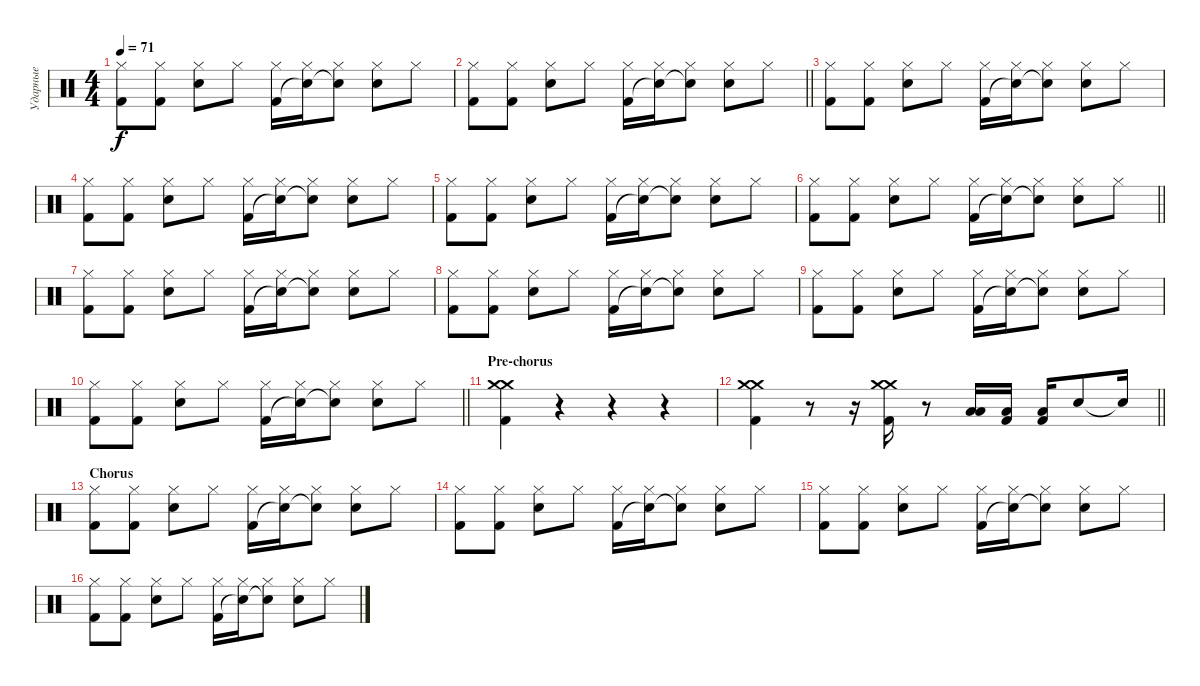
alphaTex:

\track ("Ударные" "Ударные") {instrument percussion}
\staff {score}
\articulation defaults
\ts (4 4)
\tempo 71
\clef neutral
\ks c
("Kick (hit) 2" "Hi-Hat (closed)").8{dy f} ("Kick (hit) 2" "Hi-Hat (closed)").8 ("Electric Snare (hit)" "Hi-Hat (closed)").8 "Hi-Hat (closed)".8 ("Kick (hit) 2" "Hi-Hat (closed)").16 ("Snare (hit)"{t} "Hi-Hat (closed)").16 ("Snare (hit)"{t} "Hi-Hat (closed)").8 ("Electric Snare (hit)" "Hi-Hat (closed)").8 "Hi-Hat (closed)".8 |
\barLineRight lightlight
("Kick (hit) 2" "Hi-Hat (closed)").8 ("Kick (hit) 2" "Hi-Hat (closed)").8 ("Electric Snare (hit)" "Hi-Hat (closed)").8 "Hi-Hat (closed)".8 ("Kick (hit) 2" "Hi-Hat (closed)").16 ("Snare (hit)"{t} "Hi-Hat (closed)").16 ("Snare (hit)"{t} "Hi-Hat (closed)").8 ("Electric Snare (hit)" "Hi-Hat (closed)").8 "Hi-Hat (closed)".8 |
("Kick (hit) 2" "Hi-Hat (closed)").8 ("Kick (hit) 2" "Hi-Hat (closed)").8 ("Electric Snare (hit)" "Hi-Hat (closed)").8 "Hi-Hat (closed)".8 ("Kick (hit) 2" "Hi-Hat (closed)").16 ("Snare (hit)"{t} "Hi-Hat (closed)").16 ("Snare (hit)"{t} "Hi-Hat (closed)").8 ("Electric Snare (hit)" "Hi-Hat (closed)").8 "Hi-Hat (closed)".8 |
("Kick (hit) 2" "Hi-Hat (closed)").8 ("Kick (hit) 2" "Hi-Hat (closed)").8 ("Electric Snare (hit)" "Hi-Hat (closed)").8 "Hi-Hat (closed)".8 ("Kick (hit) 2" "Hi-Hat (closed)").16 ("Snare (hit)"{t} "Hi-Hat (closed)").16 ("Snare (hit)"{t} "Hi-Hat (closed)").8 ("Electric Snare (hit)" "Hi-Hat (closed)").8 "Hi-Hat (closed)".8 |
("Kick (hit) 2" "Hi-Hat (closed)").8 ("Kick (hit) 2" "Hi-Hat (closed)").8 ("Electric Snare (hit)" "Hi-Hat (closed)").8 "Hi-Hat (closed)".8 ("Kick (hit) 2" "Hi-Hat (closed)").16 ("Snare (hit)"{t} "Hi-Hat (closed)").16 ("Snare (hit)"{t} "Hi-Hat (closed)").8 ("Electric Snare (hit)" "Hi-Hat (closed)").8 "Hi-Hat (closed)".8 |
\barLineRight lightlight
("Kick (hit) 2" "Hi-Hat (closed)").8 ("Kick (hit) 2" "Hi-Hat (closed)").8 ("Electric Snare (hit)" "Hi-Hat (closed)").8 "Hi-Hat (closed)".8 ("Kick (hit) 2" "Hi-Hat (closed)").16 ("Snare (hit)"{t} "Hi-Hat (closed)").16 ("Snare (hit)"{t} "Hi-Hat (closed)").8 ("Electric Snare (hit)" "Hi-Hat (closed)").8 "Hi-Hat (closed)".8 |
("Kick (hit) 2" "Hi-Hat (closed)").8 ("Kick (hit) 2" "Hi-Hat (closed)").8 ("Electric Snare (hit)" "Hi-Hat (closed)").8 "Hi-Hat (closed)".8 ("Kick (hit) 2" "Hi-Hat (closed)").16 ("Snare (hit)"{t} "Hi-Hat (closed)").16 ("Snare (hit)"{t} "Hi-Hat (closed)").8 ("Electric Snare (hit)" "Hi-Hat (closed)").8 "Hi-Hat (closed)".8 |
("Kick (hit) 2" "Hi-Hat (closed)").8 ("Kick (hit) 2" "Hi-Hat (closed)").8 ("Electric Snare (hit)" "Hi-Hat (closed)").8 "Hi-Hat (closed)".8 ("Kick (hit) 2" "Hi-Hat (closed)").16 ("Snare (hit)"{t} "Hi-Hat (closed)").16 ("Snare (hit)"{t} "Hi-Hat (closed)").8 ("Electric Snare (hit)" "Hi-Hat (closed)").8 "Hi-Hat (closed)".8 |
("Kick (hit) 2" "Hi-Hat (closed)").8 ("Kick (hit) 2" "Hi-Hat (closed)").8 ("Electric Snare (hit)" "Hi-Hat (closed)").8 "Hi-Hat (closed)".8 ("Kick (hit) 2" "Hi-Hat (closed)").16 ("Snare (hit)"{t} "Hi-Hat (closed)").16 ("Snare (hit)"{t} "Hi-Hat (closed)").8 ("Electric Snare (hit)" "Hi-Hat (closed)").8 "Hi-Hat (closed)".8 |
\barLineRight lightlight
("Kick (hit) 2" "Hi-Hat (closed)").8 ("Kick (hit) 2" "Hi-Hat (closed)").8 ("Electric Snare (hit)" "Hi-Hat (closed)").8 "Hi-Hat (closed)".8 ("Kick (hit) 2" "Hi-Hat (closed)").16 ("Snare (hit)"{t} "Hi-Hat (closed)").16 ("Snare (hit)"{t} "Hi-Hat (closed)").8 ("Electric Snare (hit)" "Hi-Hat (closed)").8 "Hi-Hat (closed)".8 |
\section ("" "Pre-chorus")
("Crash medium (hit)" "Crash medium (hit)" "Kick (hit) 2").4 r.4 r.4 r.4 |
\barLineRight lightlight
("Crash medium (hit)" "Crash medium (hit)" "Kick (hit) 2").4 r.8 r.16 ("Crash medium (hit)" "Crash medium (hit)" "Kick (hit) 2").16 r.8 ("Low Tom (hit)" "Low Tom (hit)").16 ("Low Tom (hit)" "Kick (hit) 2").16 ("Low Tom (hit)" "Kick (hit) 2").16 "Electric Snare (hit)".8 "Snare (hit)"{t}.16 |
\section ("" "Chorus")
("Kick (hit) 2" "Hi-Hat (closed)").8 ("Kick (hit) 2" "Hi-Hat (closed)").8 ("Electric Snare (hit)" "Hi-Hat (closed)").8 "Hi-Hat (closed)".8 ("Kick (hit) 2" "Hi-Hat (closed)").16 ("Snare (hit)"{t} "Hi-Hat (closed)").16 ("Snare (hit)"{t} "Hi-Hat (closed)").8 ("Electric Snare (hit)" "Hi-Hat (closed)").8 "Hi-Hat (closed)".8 |
("Kick (hit) 2" "Hi-Hat (closed)").8 ("Kick (hit) 2" "Hi-Hat (closed)").8 ("Electric Snare (hit)" "Hi-Hat (closed)").8 "Hi-Hat (closed)".8 ("Kick (hit) 2" "Hi-Hat (closed)").16 ("Snare (hit)"{t} "Hi-Hat (closed)").16 ("Snare (hit)"{t} "Hi-Hat (closed)").8 ("Electric Snare (hit)" "Hi-Hat (closed)").8 "Hi-Hat (closed)".8 |
("Kick (hit) 2" "Hi-Hat (closed)").8 ("Kick (hit) 2" "Hi-Hat (closed)").8 ("Electric Snare (hit)" "Hi-Hat (closed)").8 "Hi-Hat (closed)".8 ("Kick (hit) 2" "Hi-Hat (closed)").16 ("Snare (hit)"{t} "Hi-Hat (closed)").16 ("Snare (hit)"{t} "Hi-Hat (closed)").8 ("Electric Snare (hit)" "Hi-Hat (closed)").8 "Hi-Hat (closed)".8 |
("Kick (hit) 2" "Hi-Hat (closed)").8 ("Kick (hit) 2" "Hi-Hat (closed)").8 ("Electric Snare (hit)" "Hi-Hat (closed)").8 "Hi-Hat (closed)".8 ("Kick (hit) 2" "Hi-Hat (closed)").16 ("Snare (hit)"{t} "Hi-Hat (closed)").16 ("Snare (hit)"{t} "Hi-Hat (closed)").8 ("Electric Snare (hit)" "Hi-Hat (closed)").8 "Hi-Hat (closed)".8
